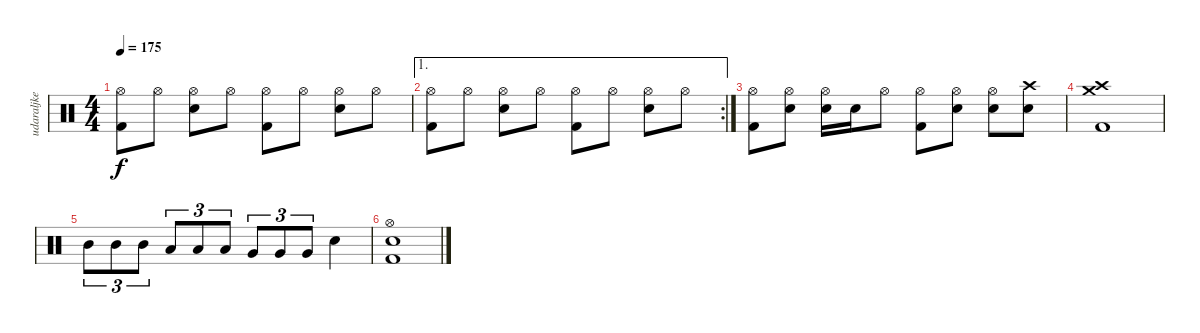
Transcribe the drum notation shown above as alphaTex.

\track ("udaraljke" "udaraljke") {instrument percussion}
\staff {score}
\articulation defaults
\ts (4 4)
\tempo 175
\clef neutral
\ks c
("Hi-Hat (open)" "Kick (hit) 2").8{dy f} "Hi-Hat (open)".8 ("Hi-Hat (open)" "Snare (hit) 2").8 "Hi-Hat (open)".8 ("Hi-Hat (open)" "Kick (hit) 2").8 "Hi-Hat (open)".8 ("Hi-Hat (open)" "Snare (hit) 2").8 "Hi-Hat (open)".8 |
\ae 1
\rc 2
("Hi-Hat (open)" "Kick (hit) 2").8 "Hi-Hat (open)".8 ("Hi-Hat (open)" "Snare (hit) 2").8 "Hi-Hat (open)".8 ("Hi-Hat (open)" "Kick (hit) 2").8 "Hi-Hat (open)".8 ("Hi-Hat (open)" "Snare (hit) 2").8 "Hi-Hat (open)".8 |
("Hi-Hat (open)" "Kick (hit) 2").8 ("Hi-Hat (open)" "Snare (hit) 2").8 ("Hi-Hat (open)" "Snare (hit) 2").16 "Snare (hit) 2".16 "Hi-Hat (open)".8 ("Hi-Hat (open)" "Kick (hit) 2").8 ("Hi-Hat (open)" "Snare (hit) 2").8 ("Hi-Hat (open)" "Snare (hit) 2").8 ("Crash high (hit)" "Snare (hit) 2").8 |
("Crash high (hit)" "Crash medium (hit)" "Kick (hit) 2").1 |
"Mid Tom (hit)".8{tu (3 2)} "Mid Tom (hit)".8{tu (3 2)} "Mid Tom (hit)".8{tu (3 2)} "Low Tom (hit)".8{tu (3 2)} "Low Tom (hit)".8{tu (3 2)} "Low Tom (hit)".8{tu (3 2)} "Very Low Tom (hit)".8{tu (3 2)} "Very Low Tom (hit)".8{tu (3 2)} "Very Low Tom (hit)".8{tu (3 2)} "Snare (hit) 2".4 |
("Hi-Hat (open)" "Snare (hit) 2" "Kick (hit) 2").1
